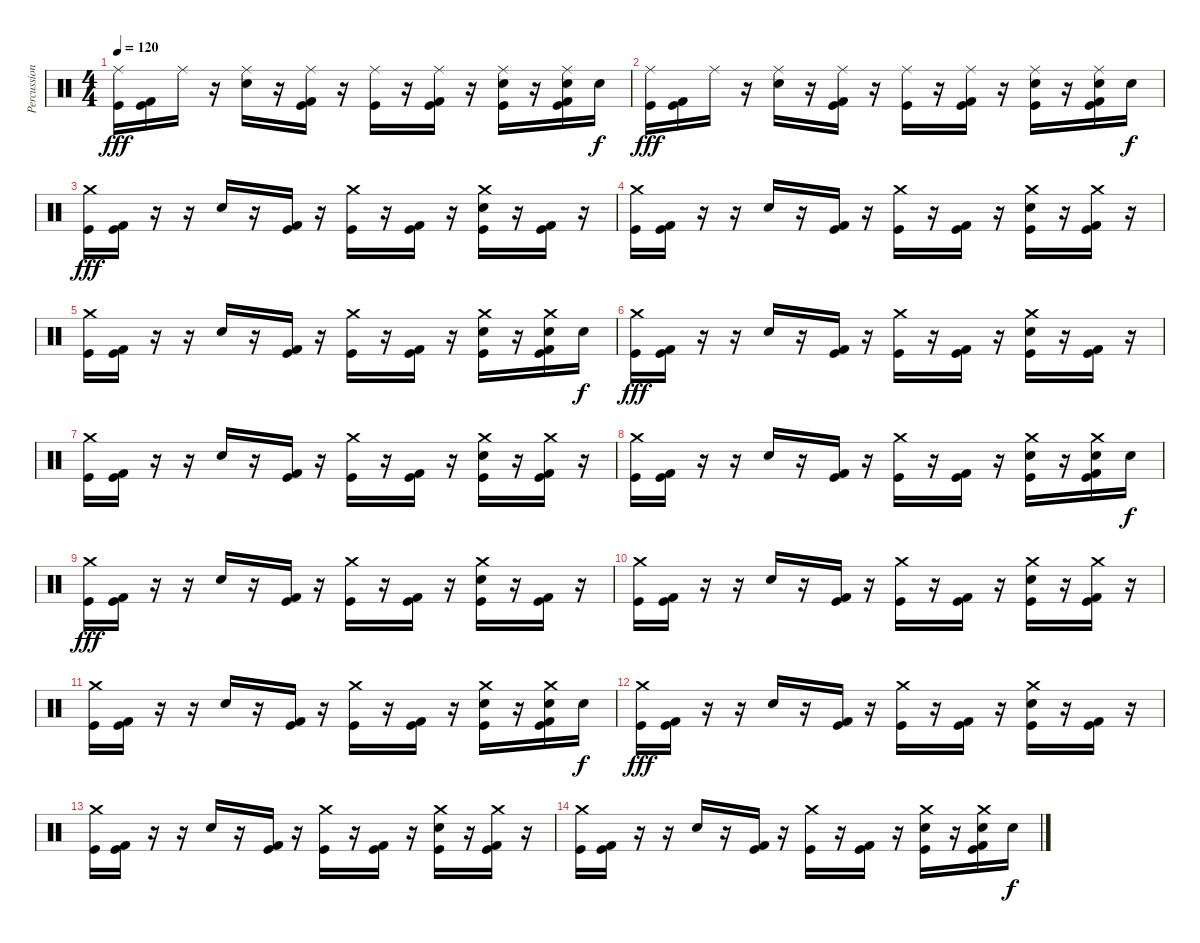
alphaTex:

\track ("Percussions" "Percussion") {instrument percussion}
\staff {score}
\articulation defaults
\ts (4 4)
\tempo 120
\clef neutral
\ks c
("Ride (middle)" "Kick (hit)").16{dy fff} ("Kick (hit) 2" "Kick (hit)").16 "Ride (middle)".16 r.16 ("Ride (middle)" "Snare (hit) 2").16 r.16 ("Ride (middle)" "Kick (hit) 2" "Kick (hit)").16 r.16 ("Ride (middle)" "Kick (hit)").16 r.16 ("Ride (middle)" "Kick (hit) 2" "Kick (hit)").16 r.16 ("Ride (middle)" "Snare (hit) 2" "Kick (hit)").16 r.16 ("Ride (middle)" "Snare (hit) 2" "Kick (hit) 2" "Kick (hit)").16 "Snare (hit) 2".16{dy f} |
("Ride (middle)" "Kick (hit)").16{dy fff} ("Kick (hit) 2" "Kick (hit)").16 "Ride (middle)".16 r.16 ("Ride (middle)" "Snare (hit) 2").16 r.16 ("Ride (middle)" "Kick (hit) 2" "Kick (hit)").16 r.16 ("Ride (middle)" "Kick (hit)").16 r.16 ("Ride (middle)" "Kick (hit) 2" "Kick (hit)").16 r.16 ("Ride (middle)" "Snare (hit) 2" "Kick (hit)").16 r.16 ("Ride (middle)" "Snare (hit) 2" "Kick (hit) 2" "Kick (hit)").16 "Snare (hit) 2".16{dy f} |
("Crash medium (hit)" "Kick (hit)").16{dy fff} ("Kick (hit) 2" "Kick (hit)").16 r.16 r.16 "Snare (hit) 2".16 r.16 ("Kick (hit) 2" "Kick (hit)").16 r.16 ("Crash medium (hit)" "Kick (hit)").16 r.16 ("Kick (hit) 2" "Kick (hit)").16 r.16 ("Crash medium (hit)" "Snare (hit) 2" "Kick (hit)").16 r.16 ("Kick (hit) 2" "Kick (hit)").16 r.16 |
("Crash medium (hit)" "Kick (hit)").16 ("Kick (hit) 2" "Kick (hit)").16 r.16 r.16 "Snare (hit) 2".16 r.16 ("Kick (hit) 2" "Kick (hit)").16 r.16 ("Crash medium (hit)" "Kick (hit)").16 r.16 ("Kick (hit) 2" "Kick (hit)").16 r.16 ("Crash medium (hit)" "Snare (hit) 2" "Kick (hit)").16 r.16 ("Crash medium (hit)" "Kick (hit) 2" "Kick (hit)").16 r.16 |
("Crash medium (hit)" "Kick (hit)").16 ("Kick (hit) 2" "Kick (hit)").16 r.16 r.16 "Snare (hit) 2".16 r.16 ("Kick (hit) 2" "Kick (hit)").16 r.16 ("Crash medium (hit)" "Kick (hit)").16 r.16 ("Kick (hit) 2" "Kick (hit)").16 r.16 ("Crash medium (hit)" "Snare (hit) 2" "Kick (hit)").16 r.16 ("Crash medium (hit)" "Snare (hit) 2" "Kick (hit) 2" "Kick (hit)").16 "Snare (hit) 2".16{dy f} |
("Crash medium (hit)" "Kick (hit)").16{dy fff} ("Kick (hit) 2" "Kick (hit)").16 r.16 r.16 "Snare (hit) 2".16 r.16 ("Kick (hit) 2" "Kick (hit)").16 r.16 ("Crash medium (hit)" "Kick (hit)").16 r.16 ("Kick (hit) 2" "Kick (hit)").16 r.16 ("Crash medium (hit)" "Snare (hit) 2" "Kick (hit)").16 r.16 ("Kick (hit) 2" "Kick (hit)").16 r.16 |
("Crash medium (hit)" "Kick (hit)").16 ("Kick (hit) 2" "Kick (hit)").16 r.16 r.16 "Snare (hit) 2".16 r.16 ("Kick (hit) 2" "Kick (hit)").16 r.16 ("Crash medium (hit)" "Kick (hit)").16 r.16 ("Kick (hit) 2" "Kick (hit)").16 r.16 ("Crash medium (hit)" "Snare (hit) 2" "Kick (hit)").16 r.16 ("Crash medium (hit)" "Kick (hit) 2" "Kick (hit)").16 r.16 |
("Crash medium (hit)" "Kick (hit)").16 ("Kick (hit) 2" "Kick (hit)").16 r.16 r.16 "Snare (hit) 2".16 r.16 ("Kick (hit) 2" "Kick (hit)").16 r.16 ("Crash medium (hit)" "Kick (hit)").16 r.16 ("Kick (hit) 2" "Kick (hit)").16 r.16 ("Crash medium (hit)" "Snare (hit) 2" "Kick (hit)").16 r.16 ("Crash medium (hit)" "Snare (hit) 2" "Kick (hit) 2" "Kick (hit)").16 "Snare (hit) 2".16{dy f} |
("Crash medium (hit)" "Kick (hit)").16{dy fff} ("Kick (hit) 2" "Kick (hit)").16 r.16 r.16 "Snare (hit) 2".16 r.16 ("Kick (hit) 2" "Kick (hit)").16 r.16 ("Crash medium (hit)" "Kick (hit)").16 r.16 ("Kick (hit) 2" "Kick (hit)").16 r.16 ("Crash medium (hit)" "Snare (hit) 2" "Kick (hit)").16 r.16 ("Kick (hit) 2" "Kick (hit)").16 r.16 |
("Crash medium (hit)" "Kick (hit)").16 ("Kick (hit) 2" "Kick (hit)").16 r.16 r.16 "Snare (hit) 2".16 r.16 ("Kick (hit) 2" "Kick (hit)").16 r.16 ("Crash medium (hit)" "Kick (hit)").16 r.16 ("Kick (hit) 2" "Kick (hit)").16 r.16 ("Crash medium (hit)" "Snare (hit) 2" "Kick (hit)").16 r.16 ("Crash medium (hit)" "Kick (hit) 2" "Kick (hit)").16 r.16 |
("Crash medium (hit)" "Kick (hit)").16 ("Kick (hit) 2" "Kick (hit)").16 r.16 r.16 "Snare (hit) 2".16 r.16 ("Kick (hit) 2" "Kick (hit)").16 r.16 ("Crash medium (hit)" "Kick (hit)").16 r.16 ("Kick (hit) 2" "Kick (hit)").16 r.16 ("Crash medium (hit)" "Snare (hit) 2" "Kick (hit)").16 r.16 ("Crash medium (hit)" "Snare (hit) 2" "Kick (hit) 2" "Kick (hit)").16 "Snare (hit) 2".16{dy f} |
("Crash medium (hit)" "Kick (hit)").16{dy fff} ("Kick (hit) 2" "Kick (hit)").16 r.16 r.16 "Snare (hit) 2".16 r.16 ("Kick (hit) 2" "Kick (hit)").16 r.16 ("Crash medium (hit)" "Kick (hit)").16 r.16 ("Kick (hit) 2" "Kick (hit)").16 r.16 ("Crash medium (hit)" "Snare (hit) 2" "Kick (hit)").16 r.16 ("Kick (hit) 2" "Kick (hit)").16 r.16 |
("Crash medium (hit)" "Kick (hit)").16 ("Kick (hit) 2" "Kick (hit)").16 r.16 r.16 "Snare (hit) 2".16 r.16 ("Kick (hit) 2" "Kick (hit)").16 r.16 ("Crash medium (hit)" "Kick (hit)").16 r.16 ("Kick (hit) 2" "Kick (hit)").16 r.16 ("Crash medium (hit)" "Snare (hit) 2" "Kick (hit)").16 r.16 ("Crash medium (hit)" "Kick (hit) 2" "Kick (hit)").16 r.16 |
("Crash medium (hit)" "Kick (hit)").16 ("Kick (hit) 2" "Kick (hit)").16 r.16 r.16 "Snare (hit) 2".16 r.16 ("Kick (hit) 2" "Kick (hit)").16 r.16 ("Crash medium (hit)" "Kick (hit)").16 r.16 ("Kick (hit) 2" "Kick (hit)").16 r.16 ("Crash medium (hit)" "Snare (hit) 2" "Kick (hit)").16 r.16 ("Crash medium (hit)" "Snare (hit) 2" "Kick (hit) 2" "Kick (hit)").16 "Snare (hit) 2".16{dy f}
